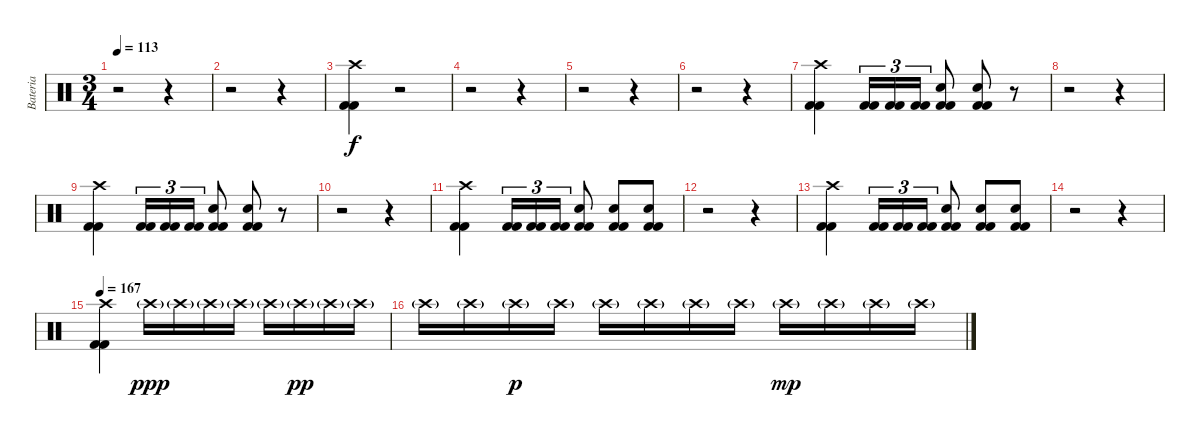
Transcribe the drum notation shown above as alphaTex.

\track ("Bateria" "Bateria") {instrument percussion}
\staff {score}
\articulation defaults
\ts (3 4)
\tempo 113
\clef neutral
\ks c
r.2{dy f} r.4 |
r.2 r.4 |
("Kick (hit) 2" "Kick (hit) 2" "Crash high (hit)").4 r.2 |
r.2 r.4 |
r.2 r.4 |
r.2 r.4 |
("Kick (hit) 2" "Kick (hit) 2" "Crash high (hit)").4 ("Kick (hit) 2" "Kick (hit) 2").16{tu (3 2)} ("Kick (hit) 2" "Kick (hit) 2").16{tu (3 2)} ("Kick (hit) 2" "Kick (hit) 2").16{tu (3 2)} ("Kick (hit) 2" "Kick (hit) 2" "Snare (hit) 2").8 ("Kick (hit) 2" "Kick (hit) 2" "Snare (hit) 2").8 r.8 |
r.2 r.4 |
("Kick (hit) 2" "Kick (hit) 2" "Crash high (hit)").4 ("Kick (hit) 2" "Kick (hit) 2").16{tu (3 2)} ("Kick (hit) 2" "Kick (hit) 2").16{tu (3 2)} ("Kick (hit) 2" "Kick (hit) 2").16{tu (3 2)} ("Kick (hit) 2" "Kick (hit) 2" "Snare (hit) 2").8 ("Kick (hit) 2" "Kick (hit) 2" "Snare (hit) 2").8 r.8 |
r.2 r.4 |
("Kick (hit) 2" "Kick (hit) 2" "Crash high (hit)").4 ("Kick (hit) 2" "Kick (hit) 2").16{tu (3 2)} ("Kick (hit) 2" "Kick (hit) 2").16{tu (3 2)} ("Kick (hit) 2" "Kick (hit) 2").16{tu (3 2)} ("Kick (hit) 2" "Kick (hit) 2" "Snare (hit) 2").8 ("Kick (hit) 2" "Kick (hit) 2" "Snare (hit) 2").8 ("Kick (hit) 2" "Kick (hit) 2" "Snare (hit) 2").8 |
r.2 r.4 |
("Kick (hit) 2" "Kick (hit) 2" "Crash high (hit)").4 ("Kick (hit) 2" "Kick (hit) 2").16{tu (3 2)} ("Kick (hit) 2" "Kick (hit) 2").16{tu (3 2)} ("Kick (hit) 2" "Kick (hit) 2").16{tu (3 2)} ("Kick (hit) 2" "Kick (hit) 2" "Snare (hit) 2").8 ("Kick (hit) 2" "Kick (hit) 2" "Snare (hit) 2").8 ("Kick (hit) 2" "Kick (hit) 2" "Snare (hit) 2").8 |
r.2 r.4 |
\tempo 167
("Kick (hit) 2" "Kick (hit) 2" "Crash high (hit)").4 "Crash high (hit)"{g}.16{dy ppp} "Crash high (hit)"{g}.16 "Crash high (hit)"{g}.16 "Crash high (hit)"{g}.16 "Crash high (hit)"{g}.16 "Crash high (hit)"{g}.16{dy pp} "Crash high (hit)"{g}.16 "Crash high (hit)"{g}.16 |
"Crash high (hit)"{g}.16 "Crash high (hit)"{g}.16 "Crash high (hit)"{g}.16{dy p} "Crash high (hit)"{g}.16 "Crash high (hit)"{g}.16 "Crash high (hit)"{g}.16 "Crash high (hit)"{g}.16 "Crash high (hit)"{g}.16 "Crash high (hit)"{g}.16{dy mp} "Crash high (hit)"{g}.16 "Crash high (hit)"{g}.16 "Crash high (hit)"{g}.16
